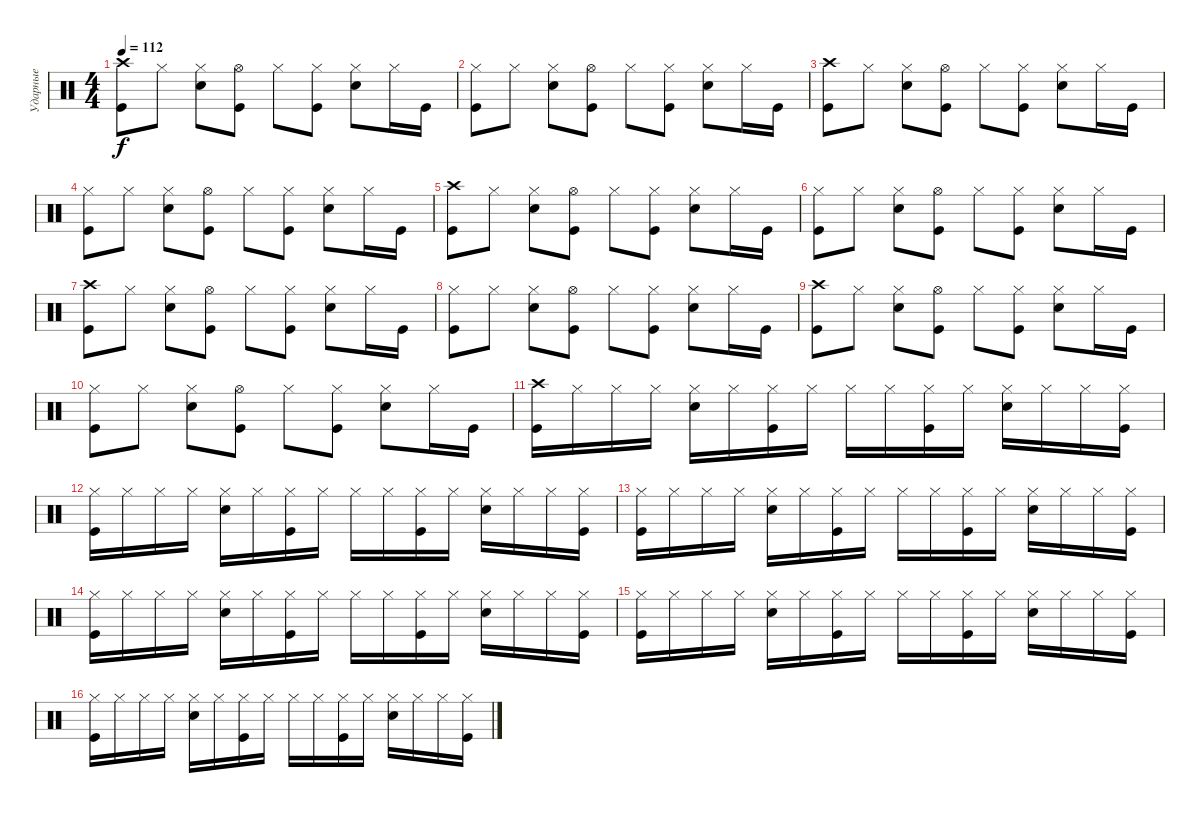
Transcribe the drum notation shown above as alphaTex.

\track ("Ударные" "Ударные") {instrument percussion}
\staff {score}
\articulation defaults
\ts (4 4)
\tempo 112
\clef neutral
\ks c
("Crash high (hit)" "Kick (hit)").8{dy f} "Hi-Hat (closed)".8 ("Hi-Hat (closed)" "Electric Snare (hit)").8 ("Hi-Hat (open)" "Kick (hit)").8 "Hi-Hat (closed)".8 ("Hi-Hat (closed)" "Kick (hit)").8 ("Hi-Hat (closed)" "Electric Snare (hit)").8 "Hi-Hat (closed)".16 "Kick (hit)".16 |
("Hi-Hat (closed)" "Kick (hit)").8 "Hi-Hat (closed)".8 ("Hi-Hat (closed)" "Electric Snare (hit)").8 ("Hi-Hat (open)" "Kick (hit)").8 "Hi-Hat (closed)".8 ("Hi-Hat (closed)" "Kick (hit)").8 ("Hi-Hat (closed)" "Electric Snare (hit)").8 "Hi-Hat (closed)".16 "Kick (hit)".16 |
("Crash high (hit)" "Kick (hit)").8 "Hi-Hat (closed)".8 ("Hi-Hat (closed)" "Electric Snare (hit)").8 ("Hi-Hat (open)" "Kick (hit)").8 "Hi-Hat (closed)".8 ("Hi-Hat (closed)" "Kick (hit)").8 ("Hi-Hat (closed)" "Electric Snare (hit)").8 "Hi-Hat (closed)".16 "Kick (hit)".16 |
("Hi-Hat (closed)" "Kick (hit)").8 "Hi-Hat (closed)".8 ("Hi-Hat (closed)" "Electric Snare (hit)").8 ("Hi-Hat (open)" "Kick (hit)").8 "Hi-Hat (closed)".8 ("Hi-Hat (closed)" "Kick (hit)").8 ("Hi-Hat (closed)" "Electric Snare (hit)").8 "Hi-Hat (closed)".16 "Kick (hit)".16 |
("Crash high (hit)" "Kick (hit)").8 "Hi-Hat (closed)".8 ("Hi-Hat (closed)" "Electric Snare (hit)").8 ("Hi-Hat (open)" "Kick (hit)").8 "Hi-Hat (closed)".8 ("Hi-Hat (closed)" "Kick (hit)").8 ("Hi-Hat (closed)" "Electric Snare (hit)").8 "Hi-Hat (closed)".16 "Kick (hit)".16 |
("Hi-Hat (closed)" "Kick (hit)").8 "Hi-Hat (closed)".8 ("Hi-Hat (closed)" "Electric Snare (hit)").8 ("Hi-Hat (open)" "Kick (hit)").8 "Hi-Hat (closed)".8 ("Hi-Hat (closed)" "Kick (hit)").8 ("Hi-Hat (closed)" "Electric Snare (hit)").8 "Hi-Hat (closed)".16 "Kick (hit)".16 |
("Crash high (hit)" "Kick (hit)").8 "Hi-Hat (closed)".8 ("Hi-Hat (closed)" "Electric Snare (hit)").8 ("Hi-Hat (open)" "Kick (hit)").8 "Hi-Hat (closed)".8 ("Hi-Hat (closed)" "Kick (hit)").8 ("Hi-Hat (closed)" "Electric Snare (hit)").8 "Hi-Hat (closed)".16 "Kick (hit)".16 |
("Hi-Hat (closed)" "Kick (hit)").8 "Hi-Hat (closed)".8 ("Hi-Hat (closed)" "Electric Snare (hit)").8 ("Hi-Hat (open)" "Kick (hit)").8 "Hi-Hat (closed)".8 ("Hi-Hat (closed)" "Kick (hit)").8 ("Hi-Hat (closed)" "Electric Snare (hit)").8 "Hi-Hat (closed)".16 "Kick (hit)".16 |
("Crash high (hit)" "Kick (hit)").8 "Hi-Hat (closed)".8 ("Hi-Hat (closed)" "Electric Snare (hit)").8 ("Hi-Hat (open)" "Kick (hit)").8 "Hi-Hat (closed)".8 ("Hi-Hat (closed)" "Kick (hit)").8 ("Hi-Hat (closed)" "Electric Snare (hit)").8 "Hi-Hat (closed)".16 "Kick (hit)".16 |
("Hi-Hat (closed)" "Kick (hit)").8 "Hi-Hat (closed)".8 ("Hi-Hat (closed)" "Electric Snare (hit)").8 ("Hi-Hat (open)" "Kick (hit)").8 "Hi-Hat (closed)".8 ("Hi-Hat (closed)" "Kick (hit)").8 ("Hi-Hat (closed)" "Electric Snare (hit)").8 "Hi-Hat (closed)".16 "Kick (hit)".16 |
("Crash high (hit)" "Kick (hit)").16 "Hi-Hat (closed)".16 "Hi-Hat (closed)".16 "Hi-Hat (closed)".16 ("Hi-Hat (closed)" "Electric Snare (hit)").16 "Hi-Hat (closed)".16 ("Hi-Hat (closed)" "Kick (hit)").16 "Hi-Hat (closed)".16 "Hi-Hat (closed)".16 "Hi-Hat (closed)".16 ("Hi-Hat (closed)" "Kick (hit)").16 "Hi-Hat (closed)".16 ("Hi-Hat (closed)" "Electric Snare (hit)").16 "Hi-Hat (closed)".16 "Hi-Hat (closed)".16 ("Hi-Hat (closed)" "Kick (hit)").16 |
("Hi-Hat (closed)" "Kick (hit)").16 "Hi-Hat (closed)".16 "Hi-Hat (closed)".16 "Hi-Hat (closed)".16 ("Hi-Hat (closed)" "Electric Snare (hit)").16 "Hi-Hat (closed)".16 ("Hi-Hat (closed)" "Kick (hit)").16 "Hi-Hat (closed)".16 "Hi-Hat (closed)".16 "Hi-Hat (closed)".16 ("Hi-Hat (closed)" "Kick (hit)").16 "Hi-Hat (closed)".16 ("Hi-Hat (closed)" "Electric Snare (hit)").16 "Hi-Hat (closed)".16 "Hi-Hat (closed)".16 ("Hi-Hat (closed)" "Kick (hit)").16 |
("Hi-Hat (closed)" "Kick (hit)").16 "Hi-Hat (closed)".16 "Hi-Hat (closed)".16 "Hi-Hat (closed)".16 ("Hi-Hat (closed)" "Electric Snare (hit)").16 "Hi-Hat (closed)".16 ("Hi-Hat (closed)" "Kick (hit)").16 "Hi-Hat (closed)".16 "Hi-Hat (closed)".16 "Hi-Hat (closed)".16 ("Hi-Hat (closed)" "Kick (hit)").16 "Hi-Hat (closed)".16 ("Hi-Hat (closed)" "Electric Snare (hit)").16 "Hi-Hat (closed)".16 "Hi-Hat (closed)".16 ("Hi-Hat (closed)" "Kick (hit)").16 |
("Hi-Hat (closed)" "Kick (hit)").16 "Hi-Hat (closed)".16 "Hi-Hat (closed)".16 "Hi-Hat (closed)".16 ("Hi-Hat (closed)" "Electric Snare (hit)").16 "Hi-Hat (closed)".16 ("Hi-Hat (closed)" "Kick (hit)").16 "Hi-Hat (closed)".16 "Hi-Hat (closed)".16 "Hi-Hat (closed)".16 ("Hi-Hat (closed)" "Kick (hit)").16 "Hi-Hat (closed)".16 ("Hi-Hat (closed)" "Electric Snare (hit)").16 "Hi-Hat (closed)".16 "Hi-Hat (closed)".16 ("Hi-Hat (closed)" "Kick (hit)").16 |
("Hi-Hat (closed)" "Kick (hit)").16 "Hi-Hat (closed)".16 "Hi-Hat (closed)".16 "Hi-Hat (closed)".16 ("Hi-Hat (closed)" "Electric Snare (hit)").16 "Hi-Hat (closed)".16 ("Hi-Hat (closed)" "Kick (hit)").16 "Hi-Hat (closed)".16 "Hi-Hat (closed)".16 "Hi-Hat (closed)".16 ("Hi-Hat (closed)" "Kick (hit)").16 "Hi-Hat (closed)".16 ("Hi-Hat (closed)" "Electric Snare (hit)").16 "Hi-Hat (closed)".16 "Hi-Hat (closed)".16 ("Hi-Hat (closed)" "Kick (hit)").16 |
("Hi-Hat (closed)" "Kick (hit)").16 "Hi-Hat (closed)".16 "Hi-Hat (closed)".16 "Hi-Hat (closed)".16 ("Hi-Hat (closed)" "Electric Snare (hit)").16 "Hi-Hat (closed)".16 ("Hi-Hat (closed)" "Kick (hit)").16 "Hi-Hat (closed)".16 "Hi-Hat (closed)".16 "Hi-Hat (closed)".16 ("Hi-Hat (closed)" "Kick (hit)").16 "Hi-Hat (closed)".16 ("Hi-Hat (closed)" "Electric Snare (hit)").16 "Hi-Hat (closed)".16 "Hi-Hat (closed)".16 ("Hi-Hat (closed)" "Kick (hit)").16
